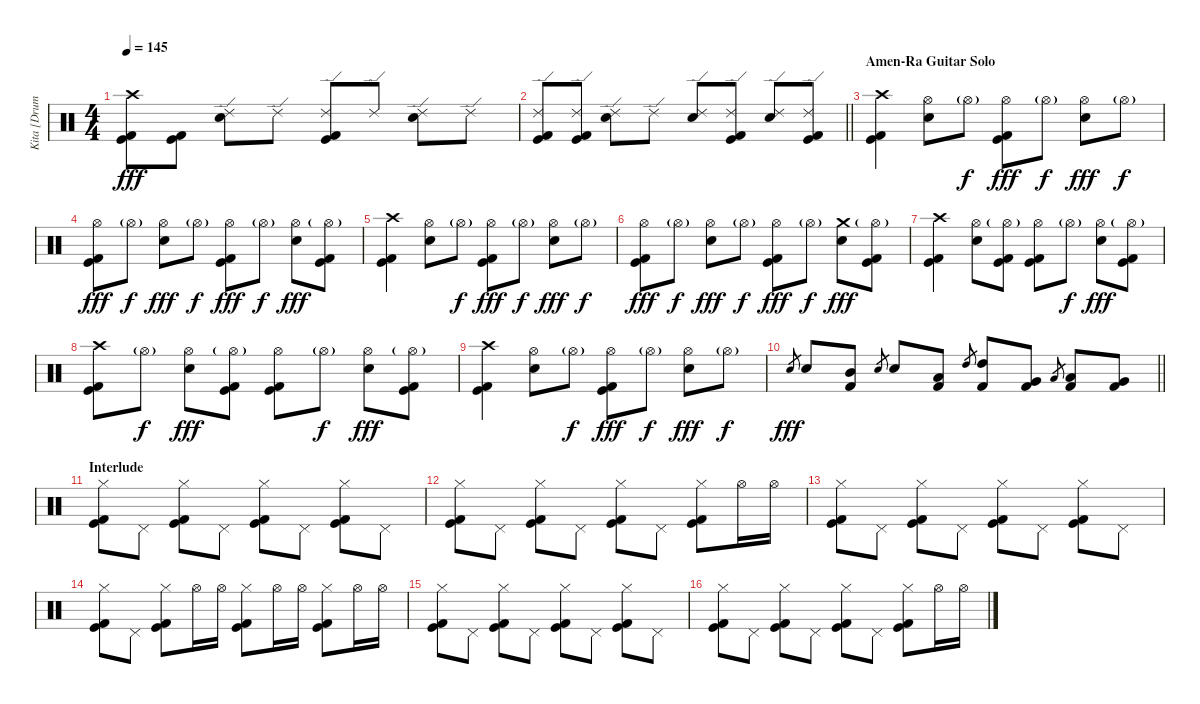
\track ("Kita [Drums]" "Kita [Drum") {instrument percussion}
\staff {score}
\articulation defaults
\ts (4 4)
\tempo 145
\clef neutral
\ks c
("Crash high (hit)" "Kick (hit)" "Kick (hit) 2").8{dy fff} ("Kick (hit)" "Kick (hit) 2").8 ("Ride (edge) 2" "Electric Snare (hit)").8 "Ride (edge) 2".8 ("Ride (edge) 2" "Kick (hit)" "Kick (hit) 2").8 "Ride (edge) 2".8 ("Ride (edge) 2" "Electric Snare (hit)").8 "Ride (edge) 2".8 |
\barLineRight lightlight
("Ride (edge) 2" "Kick (hit)" "Kick (hit) 2").8 ("Ride (edge) 2" "Kick (hit)" "Kick (hit) 2").8 ("Ride (edge) 2" "Electric Snare (hit)").8 "Ride (edge) 2".8 ("Ride (edge) 2" "Electric Snare (hit)").8 ("Ride (edge) 2" "Kick (hit)" "Kick (hit) 2").8 ("Ride (edge) 2" "Electric Snare (hit)").8 ("Ride (edge) 2" "Kick (hit)" "Kick (hit) 2").8 |
\section ("" "Amen-Ra Guitar Solo")
("Crash high (hit)" "Kick (hit)" "Kick (hit) 2").4 ("Hi-Hat (open)" "Electric Snare (hit)").8 "Hi-Hat (open)"{g}.8{dy f} ("Hi-Hat (open)" "Kick (hit)" "Kick (hit) 2").8{dy fff} "Hi-Hat (open)"{g}.8{dy f} ("Hi-Hat (open)" "Electric Snare (hit)").8{dy fff} "Hi-Hat (open)"{g}.8{dy f} |
("Hi-Hat (open)" "Kick (hit)" "Kick (hit) 2").8{dy fff} "Hi-Hat (open)"{g}.8{dy f} ("Hi-Hat (open)" "Electric Snare (hit)").8{dy fff} "Hi-Hat (open)"{g}.8{dy f} ("Hi-Hat (open)" "Kick (hit)" "Kick (hit) 2").8{dy fff} "Hi-Hat (open)"{g}.8{dy f} ("Hi-Hat (open)" "Electric Snare (hit)").8{dy fff} ("Hi-Hat (open)"{g} "Kick (hit)" "Kick (hit) 2").8 |
("Crash high (hit)" "Kick (hit)" "Kick (hit) 2").4 ("Hi-Hat (open)" "Electric Snare (hit)").8 "Hi-Hat (open)"{g}.8{dy f} ("Hi-Hat (open)" "Kick (hit)" "Kick (hit) 2").8{dy fff} "Hi-Hat (open)"{g}.8{dy f} ("Hi-Hat (open)" "Electric Snare (hit)").8{dy fff} "Hi-Hat (open)"{g}.8{dy f} |
("Hi-Hat (open)" "Kick (hit)" "Kick (hit) 2").8{dy fff} "Hi-Hat (open)"{g}.8{dy f} ("Hi-Hat (open)" "Electric Snare (hit)").8{dy fff} "Hi-Hat (open)"{g}.8{dy f} ("Hi-Hat (open)" "Kick (hit)" "Kick (hit) 2").8{dy fff} "Hi-Hat (open)"{g}.8{dy f} ("Crash medium (hit)" "Electric Snare (hit)").8{dy fff} ("Hi-Hat (open)"{g} "Kick (hit)" "Kick (hit) 2").8 |
("Crash high (hit)" "Kick (hit)" "Kick (hit) 2").4 ("Hi-Hat (open)" "Electric Snare (hit)").8 ("Hi-Hat (open)"{g} "Kick (hit)" "Kick (hit) 2").8 ("Hi-Hat (open)" "Kick (hit)" "Kick (hit) 2").8 "Hi-Hat (open)"{g}.8{dy f} ("Hi-Hat (open)" "Electric Snare (hit)").8{dy fff} ("Hi-Hat (open)"{g} "Kick (hit)" "Kick (hit) 2").8 |
("Crash high (hit)" "Kick (hit)" "Kick (hit) 2").8 "Hi-Hat (open)"{g}.8{dy f} ("Hi-Hat (open)" "Electric Snare (hit)").8{dy fff} ("Hi-Hat (open)"{g} "Kick (hit)" "Kick (hit) 2").8 ("Hi-Hat (open)" "Kick (hit)" "Kick (hit) 2").8 "Hi-Hat (open)"{g}.8{dy f} ("Hi-Hat (open)" "Electric Snare (hit)").8{dy fff} ("Hi-Hat (open)"{g} "Kick (hit)" "Kick (hit) 2").8 |
("Crash high (hit)" "Kick (hit)" "Kick (hit) 2").4 ("Hi-Hat (open)" "Electric Snare (hit)").8 "Hi-Hat (open)"{g}.8{dy f} ("Hi-Hat (open)" "Kick (hit)" "Kick (hit) 2").8{dy fff} "Hi-Hat (open)"{g}.8{dy f} ("Hi-Hat (open)" "Electric Snare (hit)").8{dy fff} "Hi-Hat (open)"{g}.8{dy f} |
\barLineRight lightlight "Electric Snare (hit)".8{gr dy fff} "Electric Snare (hit)".8
("Mid Tom (hit)" "Kick (hit) 2").8 "Electric Snare (hit)".8{gr} "Electric Snare (hit)".8 ("Low Tom (hit)" "Kick (hit) 2").8 "High Tom (hit)".8{gr} ("High Tom (hit)" "Kick (hit) 2").8 ("Very Low Tom (hit)" "Kick (hit) 2").8 "Low Tom (hit)".8{gr} ("Low Tom (hit)" "Kick (hit) 2").8 ("Very Low Tom (hit)" "Kick (hit) 2").8 |
\section ("" "Interlude")
("Hi-Hat (closed)" "Kick (hit)" "Kick (hit) 2").8 "Pedal Hi-Hat (hit)".8 ("Hi-Hat (closed)" "Kick (hit)" "Kick (hit) 2").8 "Pedal Hi-Hat (hit)".8 ("Hi-Hat (closed)" "Kick (hit)" "Kick (hit) 2").8 "Pedal Hi-Hat (hit)".8 ("Hi-Hat (closed)" "Kick (hit)" "Kick (hit) 2").8 "Pedal Hi-Hat (hit)".8 |
("Hi-Hat (closed)" "Kick (hit)" "Kick (hit) 2").8 "Pedal Hi-Hat (hit)".8 ("Hi-Hat (closed)" "Kick (hit)" "Kick (hit) 2").8 "Pedal Hi-Hat (hit)".8 ("Hi-Hat (closed)" "Kick (hit)" "Kick (hit) 2").8 "Pedal Hi-Hat (hit)".8 ("Hi-Hat (closed)" "Kick (hit)" "Kick (hit) 2").8 "Hi-Hat (open)".16 "Hi-Hat (open)".16 |
("Hi-Hat (closed)" "Kick (hit)" "Kick (hit) 2").8 "Pedal Hi-Hat (hit)".8 ("Hi-Hat (closed)" "Kick (hit)" "Kick (hit) 2").8 "Pedal Hi-Hat (hit)".8 ("Hi-Hat (closed)" "Kick (hit)" "Kick (hit) 2").8 "Pedal Hi-Hat (hit)".8 ("Hi-Hat (closed)" "Kick (hit)" "Kick (hit) 2").8 "Pedal Hi-Hat (hit)".8 |
("Hi-Hat (closed)" "Kick (hit)" "Kick (hit) 2").8 "Pedal Hi-Hat (hit)".8 ("Hi-Hat (closed)" "Kick (hit)" "Kick (hit) 2").8 "Hi-Hat (open)".16 "Hi-Hat (open)".16 ("Hi-Hat (closed)" "Kick (hit)" "Kick (hit) 2").8 "Hi-Hat (open)".16 "Hi-Hat (open)".16 ("Hi-Hat (closed)" "Kick (hit)" "Kick (hit) 2").8 "Hi-Hat (open)".16 "Hi-Hat (open)".16 |
("Hi-Hat (closed)" "Kick (hit)" "Kick (hit) 2").8 "Pedal Hi-Hat (hit)".8 ("Hi-Hat (closed)" "Kick (hit)" "Kick (hit) 2").8 "Pedal Hi-Hat (hit)".8 ("Hi-Hat (closed)" "Kick (hit)" "Kick (hit) 2").8 "Pedal Hi-Hat (hit)".8 ("Hi-Hat (closed)" "Kick (hit)" "Kick (hit) 2").8 "Pedal Hi-Hat (hit)".8 |
("Hi-Hat (closed)" "Kick (hit)" "Kick (hit) 2").8 "Pedal Hi-Hat (hit)".8 ("Hi-Hat (closed)" "Kick (hit)" "Kick (hit) 2").8 "Pedal Hi-Hat (hit)".8 ("Hi-Hat (closed)" "Kick (hit)" "Kick (hit) 2").8 "Pedal Hi-Hat (hit)".8 ("Hi-Hat (closed)" "Kick (hit)" "Kick (hit) 2").8 "Hi-Hat (open)".16 "Hi-Hat (open)".16
